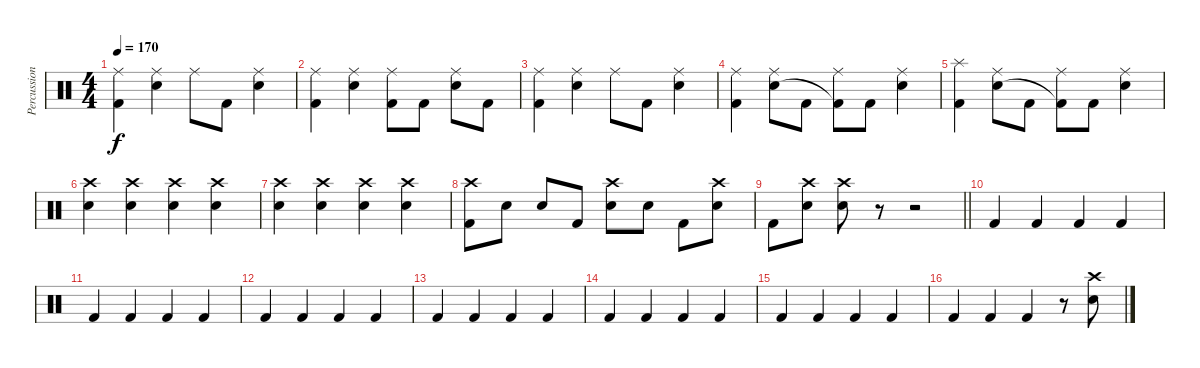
\track ("Percussion" "Percussion") {instrument percussion}
\staff {score}
\articulation defaults
\ts (4 4)
\tempo 170
\clef neutral
\ks c
("Ride (middle)" "Kick (hit) 2").4{dy f} ("Ride (middle)" "Snare (hit) 2").4 "Ride (middle)".8 "Kick (hit) 2".8 ("Ride (middle)" "Snare (hit) 2").4 |
("Ride (middle)" "Kick (hit) 2").4 ("Ride (middle)" "Snare (hit) 2").4 ("Ride (middle)" "Kick (hit) 2").8 "Kick (hit) 2".8 ("Ride (middle)" "Snare (hit) 2").8 "Kick (hit) 2".8 |
("Ride (middle)" "Kick (hit) 2").4 ("Ride (middle)" "Snare (hit) 2").4 "Ride (middle)".8 "Kick (hit) 2".8 ("Ride (middle)" "Snare (hit) 2").4 |
("Ride (middle)" "Kick (hit) 2").4 ("Ride (middle)" "Snare (hit) 2").8 "Kick (hit) 2".8 ("Ride (middle)" "Kick (hit) 2"{t}).8 "Kick (hit) 2".8 ("Ride (middle)" "Snare (hit) 2").4 |
("Splash (hit)" "Kick (hit) 2").4 ("Ride (middle)" "Snare (hit) 2").8 "Kick (hit) 2".8 ("Ride (middle)" "Kick (hit) 2"{t}).8 "Kick (hit) 2".8 ("Ride (middle)" "Snare (hit) 2").4 |
("Crash high (hit)" "Snare (hit) 2").4 ("Crash high (hit)" "Snare (hit) 2").4 ("Crash high (hit)" "Snare (hit) 2").4 ("Crash high (hit)" "Snare (hit) 2").4 |
("Crash high (hit)" "Snare (hit) 2").4 ("Crash high (hit)" "Snare (hit) 2").4 ("Crash high (hit)" "Snare (hit) 2").4 ("Crash high (hit)" "Snare (hit) 2").4 |
("Crash high (hit)" "Kick (hit) 2").8 "Snare (hit) 2".8 "Snare (hit) 2".8 "Kick (hit) 2".8 ("Crash high (hit)" "Snare (hit) 2").8 "Snare (hit) 2".8 "Kick (hit) 2".8 ("Crash high (hit)" "Snare (hit) 2").8 |
\barLineRight lightlight "Kick (hit) 2".8
("Crash high (hit)" "Snare (hit) 2").8 ("Crash high (hit)" "Snare (hit) 2").8 r.8 r.2 |
"Kick (hit) 2".4 "Kick (hit) 2".4 "Kick (hit) 2".4 "Kick (hit) 2".4 |
"Kick (hit) 2".4 "Kick (hit) 2".4 "Kick (hit) 2".4 "Kick (hit) 2".4 |
"Kick (hit) 2".4 "Kick (hit) 2".4 "Kick (hit) 2".4 "Kick (hit) 2".4 |
"Kick (hit) 2".4 "Kick (hit) 2".4 "Kick (hit) 2".4 "Kick (hit) 2".4 |
"Kick (hit) 2".4 "Kick (hit) 2".4 "Kick (hit) 2".4 "Kick (hit) 2".4 |
"Kick (hit) 2".4 "Kick (hit) 2".4 "Kick (hit) 2".4 "Kick (hit) 2".4 |
"Kick (hit) 2".4 "Kick (hit) 2".4 "Kick (hit) 2".4 r.8 ("Crash high (hit)" "Snare (hit) 2").8
